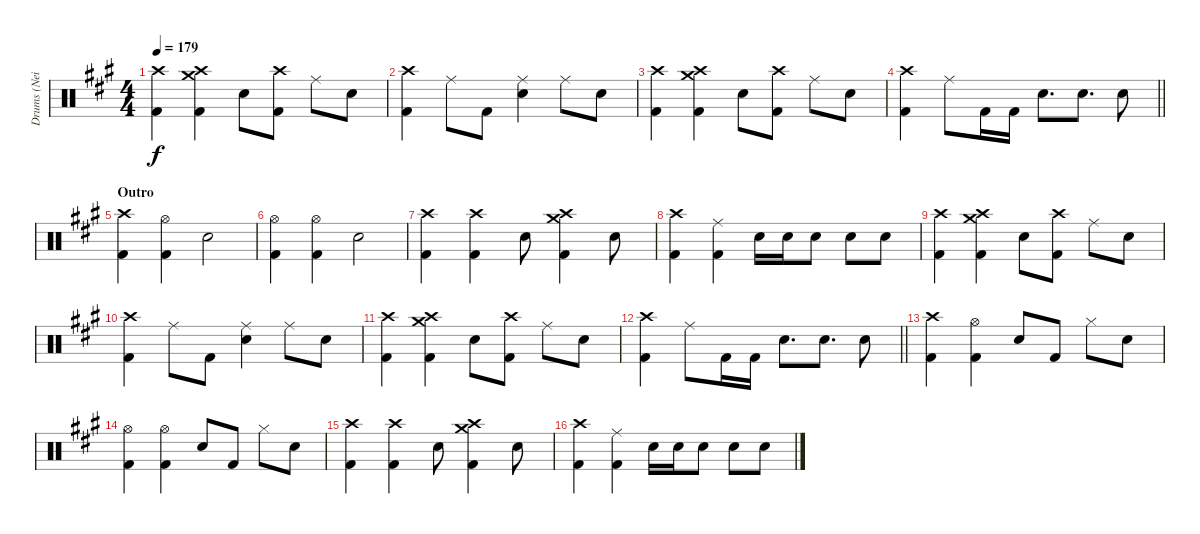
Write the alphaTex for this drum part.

\track ("Drums (Neil Sanderson)" "Drums (Nei") {instrument percussion}
\staff {score}
\articulation defaults
\ts (4 4)
\tempo 179
\clef neutral
\ks f#minor
("Crash high (hit)" "Kick (hit) 2").4{dy f} ("Crash medium (hit)" "Crash high (hit)" "Kick (hit) 2").4 "Electric Snare (hit)".8 ("Crash high (hit)" "Kick (hit) 2").8 "Ride (middle)".8 "Electric Snare (hit)".8 |
("Crash high (hit)" "Kick (hit) 2").4 "Ride (middle)".8 "Kick (hit) 2".8 ("Ride (middle)" "Electric Snare (hit)").4 "Ride (middle)".8 "Electric Snare (hit)".8 |
("Crash high (hit)" "Kick (hit) 2").4 ("Crash medium (hit)" "Crash high (hit)" "Kick (hit) 2").4 "Electric Snare (hit)".8 ("Crash high (hit)" "Kick (hit) 2").8 "Ride (middle)".8 "Electric Snare (hit)".8 |
\barLineRight lightlight
("Crash high (hit)" "Kick (hit) 2").4 "Ride (middle)".8 "Kick (hit) 2".16 "Kick (hit) 2".16 "Electric Snare (hit)".8{d} "Electric Snare (hit)".8{d} "Electric Snare (hit)".8 |
\section ("" "Outro")
("Crash high (hit)" "Kick (hit) 2").4 ("Hi-Hat (open)" "Kick (hit) 2").4 "Electric Snare (hit)".2 |
("Hi-Hat (open)" "Kick (hit) 2").4 ("Hi-Hat (open)" "Kick (hit) 2").4 "Electric Snare (hit)".2 |
("Crash high (hit)" "Kick (hit) 2").4 ("Crash high (hit)" "Kick (hit) 2").4 "Electric Snare (hit)".8 ("Crash medium (hit)" "Crash high (hit)" "Kick (hit) 2").4 "Electric Snare (hit)".8 |
("Crash high (hit)" "Kick (hit) 2").4 ("Ride (middle)" "Kick (hit) 2").4 "Electric Snare (hit)".16 "Electric Snare (hit)".16 "Electric Snare (hit)".8 "Electric Snare (hit)".8 "Electric Snare (hit)".8 |
("Crash high (hit)" "Kick (hit) 2").4 ("Crash medium (hit)" "Crash high (hit)" "Kick (hit) 2").4 "Electric Snare (hit)".8 ("Crash high (hit)" "Kick (hit) 2").8 "Ride (middle)".8 "Electric Snare (hit)".8 |
("Crash high (hit)" "Kick (hit) 2").4 "Ride (middle)".8 "Kick (hit) 2".8 ("Ride (middle)" "Electric Snare (hit)").4 "Ride (middle)".8 "Electric Snare (hit)".8 |
("Crash high (hit)" "Kick (hit) 2").4 ("Crash medium (hit)" "Crash high (hit)" "Kick (hit) 2").4 "Electric Snare (hit)".8 ("Crash high (hit)" "Kick (hit) 2").8 "Ride (middle)".8 "Electric Snare (hit)".8 |
\barLineRight lightlight
("Crash high (hit)" "Kick (hit) 2").4 "Ride (middle)".8 "Kick (hit) 2".16 "Kick (hit) 2".16 "Electric Snare (hit)".8{d} "Electric Snare (hit)".8{d} "Electric Snare (hit)".8 |
("Crash high (hit)" "Kick (hit) 2").4 ("Hi-Hat (open)" "Kick (hit) 2").4 "Electric Snare (hit)".8 "Kick (hit) 2".8 "Hi-Hat (closed)".8 "Electric Snare (hit)".8 |
("Hi-Hat (open)" "Kick (hit) 2").4 ("Hi-Hat (open)" "Kick (hit) 2").4 "Electric Snare (hit)".8 "Kick (hit) 2".8 "Hi-Hat (closed)".8 "Electric Snare (hit)".8 |
("Crash high (hit)" "Kick (hit) 2").4 ("Crash high (hit)" "Kick (hit) 2").4 "Electric Snare (hit)".8 ("Crash medium (hit)" "Crash high (hit)" "Kick (hit) 2").4 "Electric Snare (hit)".8 |
("Crash high (hit)" "Kick (hit) 2").4 ("Ride (middle)" "Kick (hit) 2").4 "Electric Snare (hit)".16 "Electric Snare (hit)".16 "Electric Snare (hit)".8 "Electric Snare (hit)".8 "Electric Snare (hit)".8
